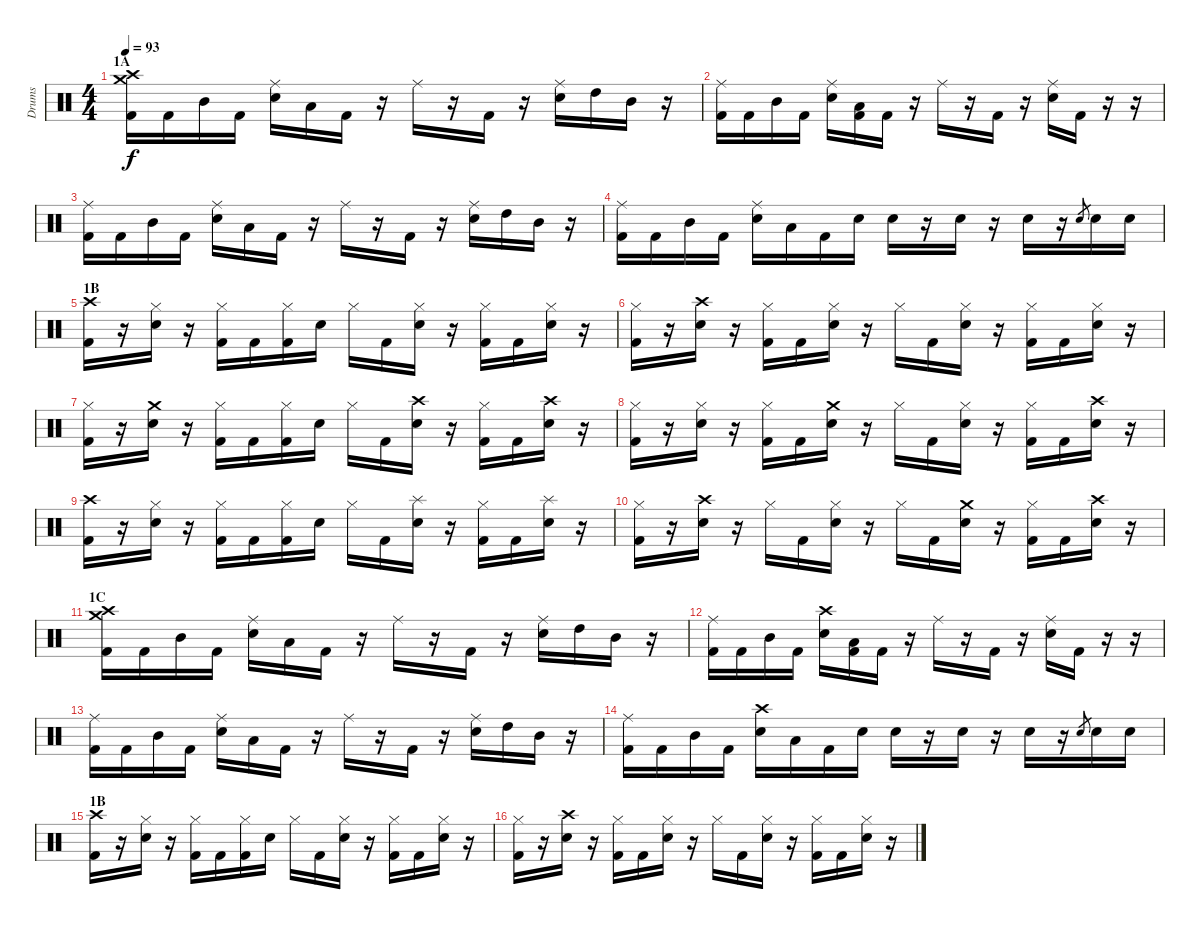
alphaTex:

\track ("Drums" "Drums") {instrument percussion}
\staff {score}
\articulation defaults
\ts (4 4)
\section ("" "1A")
\tempo 93
\clef neutral
\ks c
("Crash high (hit)" "Crash medium (hit)" "Kick (hit) 2").16{dy f volume 16} "Kick (hit) 2".16 "Mid Tom (hit)".16 "Kick (hit) 2".16 ("Ride (middle)" "Electric Snare (hit)").16 "Low Floor Tom (hit)".16 "Kick (hit) 2".16 r.16 "Ride (middle)".16 r.16 "Kick (hit) 2".16 r.16 ("Ride (middle)" "Electric Snare (hit)").16 "High Tom (hit)".16 "Mid Tom (hit)".16 r.16 |
("Ride (middle)" "Kick (hit) 2").16 "Kick (hit) 2".16 "Mid Tom (hit)".16 "Kick (hit) 2".16 ("Ride (middle)" "Electric Snare (hit)").16 ("Low Floor Tom (hit)" "Kick (hit) 2").16 "Kick (hit) 2".16 r.16 "Ride (middle)".16 r.16 "Kick (hit) 2".16 r.16 ("Ride (middle)" "Electric Snare (hit)").16 "Kick (hit) 2".16 r.16 r.16 |
("Ride (middle)" "Kick (hit) 2").16 "Kick (hit) 2".16 "Mid Tom (hit)".16 "Kick (hit) 2".16 ("Ride (middle)" "Electric Snare (hit)").16 "Low Floor Tom (hit)".16 "Kick (hit) 2".16 r.16 "Ride (middle)".16 r.16 "Kick (hit) 2".16 r.16 ("Ride (middle)" "Electric Snare (hit)").16 "High Tom (hit)".16 "Mid Tom (hit)".16 r.16 |
("Ride (middle)" "Kick (hit) 2").16 "Kick (hit) 2".16 "Mid Tom (hit)".16 "Kick (hit) 2".16 ("Ride (middle)" "Electric Snare (hit)").16 "Low Floor Tom (hit)".16 "Kick (hit) 2".16 "Electric Snare (hit)".16 "Electric Snare (hit)".16 r.16 "Electric Snare (hit)".16 r.16 "Electric Snare (hit)".16 r.16 "Electric Snare (hit)".8{gr} "Electric Snare (hit)".16 "Electric Snare (hit)".16 |
\section ("" "1B")
("Crash high (hit)" "Kick (hit) 2").16 r.16 ("Hi-Hat (closed)" "Electric Snare (hit)").16 r.16 ("Hi-Hat (closed)" "Kick (hit) 2").16 "Kick (hit) 2".16 ("Hi-Hat (closed)" "Kick (hit) 2").16 "Electric Snare (hit)".16 "Hi-Hat (closed)".16 "Kick (hit) 2".16 ("Hi-Hat (closed)" "Electric Snare (hit)").16 r.16 ("Hi-Hat (closed)" "Kick (hit) 2").16 "Kick (hit) 2".16 ("Hi-Hat (closed)" "Electric Snare (hit)").16 r.16 |
("Hi-Hat (closed)" "Kick (hit) 2").16 r.16 ("Crash high (hit)" "Electric Snare (hit)").16 r.16 ("Hi-Hat (closed)" "Kick (hit) 2").16 "Kick (hit) 2".16 ("Hi-Hat (closed)" "Electric Snare (hit)").16 r.16 "Hi-Hat (closed)".16 "Kick (hit) 2".16 ("Hi-Hat (closed)" "Electric Snare (hit)").16 r.16 ("Hi-Hat (closed)" "Kick (hit) 2").16 "Kick (hit) 2".16 ("Hi-Hat (closed)" "Electric Snare (hit)").16 r.16 |
("Hi-Hat (closed)" "Kick (hit) 2").16 r.16 ("Crash medium (hit)" "Electric Snare (hit)").16 r.16 ("Hi-Hat (closed)" "Kick (hit) 2").16 "Kick (hit) 2".16 ("Hi-Hat (closed)" "Kick (hit) 2").16 "Electric Snare (hit)".16 "Hi-Hat (closed)".16 "Kick (hit) 2".16 ("Crash high (hit)" "Electric Snare (hit)").16 r.16 ("Hi-Hat (closed)" "Kick (hit) 2").16 "Kick (hit) 2".16 ("Crash high (hit)" "Electric Snare (hit)").16 r.16 |
("Hi-Hat (closed)" "Kick (hit) 2").16 r.16 ("Hi-Hat (closed)" "Electric Snare (hit)").16 r.16 ("Hi-Hat (closed)" "Kick (hit) 2").16 "Kick (hit) 2".16 ("Crash medium (hit)" "Electric Snare (hit)").16 r.16 "Hi-Hat (closed)".16 "Kick (hit) 2".16 ("Hi-Hat (closed)" "Electric Snare (hit)").16 r.16 ("Hi-Hat (closed)" "Kick (hit) 2").16 "Kick (hit) 2".16 ("Crash high (hit)" "Electric Snare (hit)").16 r.16 |
("Crash high (hit)" "Kick (hit) 2").16 r.16 ("Hi-Hat (closed)" "Electric Snare (hit)").16 r.16 ("Hi-Hat (closed)" "Kick (hit) 2").16 "Kick (hit) 2".16 ("Hi-Hat (closed)" "Kick (hit) 2").16 "Electric Snare (hit)".16 "Hi-Hat (closed)".16 "Kick (hit) 2".16 ("Splash (hit)" "Electric Snare (hit)").16 r.16 ("Hi-Hat (closed)" "Kick (hit) 2").16 "Kick (hit) 2".16 ("Splash (hit)" "Electric Snare (hit)").16 r.16 |
("Hi-Hat (closed)" "Kick (hit) 2").16 r.16 ("Crash high (hit)" "Electric Snare (hit)").16 r.16 "Hi-Hat (closed)".16 "Kick (hit) 2".16 ("Hi-Hat (closed)" "Electric Snare (hit)").16 r.16 "Hi-Hat (closed)".16 "Kick (hit) 2".16 ("Crash medium (hit)" "Electric Snare (hit)").16 r.16 ("Hi-Hat (closed)" "Kick (hit) 2").16 "Kick (hit) 2".16 ("Crash high (hit)" "Electric Snare (hit)").16 r.16 |
\section ("" "1C")
("Crash high (hit)" "Crash medium (hit)" "Kick (hit) 2").16 "Kick (hit) 2".16 "Mid Tom (hit)".16 "Kick (hit) 2".16 ("Ride (middle)" "Electric Snare (hit)").16 "Low Floor Tom (hit)".16 "Kick (hit) 2".16 r.16 "Ride (middle)".16 r.16 "Kick (hit) 2".16 r.16 ("Ride (middle)" "Electric Snare (hit)").16 "High Tom (hit)".16 "Mid Tom (hit)".16 r.16 |
("Ride (middle)" "Kick (hit) 2").16 "Kick (hit) 2".16 "Mid Tom (hit)".16 "Kick (hit) 2".16 ("Crash high (hit)" "Electric Snare (hit)").16 ("Low Floor Tom (hit)" "Kick (hit) 2").16 "Kick (hit) 2".16 r.16 "Ride (middle)".16 r.16 "Kick (hit) 2".16 r.16 ("Ride (middle)" "Electric Snare (hit)").16 "Kick (hit) 2".16 r.16 r.16 |
("Ride (middle)" "Kick (hit) 2").16 "Kick (hit) 2".16 "Mid Tom (hit)".16 "Kick (hit) 2".16 ("Ride (middle)" "Electric Snare (hit)").16 "Low Floor Tom (hit)".16 "Kick (hit) 2".16 r.16 "Ride (middle)".16 r.16 "Kick (hit) 2".16 r.16 ("Ride (middle)" "Electric Snare (hit)").16 "High Tom (hit)".16 "Mid Tom (hit)".16 r.16 |
("Ride (middle)" "Kick (hit) 2").16 "Kick (hit) 2".16 "Mid Tom (hit)".16 "Kick (hit) 2".16 ("Crash high (hit)" "Electric Snare (hit)").16 "Low Floor Tom (hit)".16 "Kick (hit) 2".16 "Electric Snare (hit)".16 "Electric Snare (hit)".16 r.16 "Electric Snare (hit)".16 r.16 "Electric Snare (hit)".16 r.16 "Electric Snare (hit)".8{gr} "Electric Snare (hit)".16 "Electric Snare (hit)".16 |
\section ("" "1B")
("Crash high (hit)" "Kick (hit) 2").16 r.16 ("Hi-Hat (closed)" "Electric Snare (hit)").16 r.16 ("Hi-Hat (closed)" "Kick (hit) 2").16 "Kick (hit) 2".16 ("Hi-Hat (closed)" "Kick (hit) 2").16 "Electric Snare (hit)".16 "Hi-Hat (closed)".16 "Kick (hit) 2".16 ("Hi-Hat (closed)" "Electric Snare (hit)").16 r.16 ("Hi-Hat (closed)" "Kick (hit) 2").16 "Kick (hit) 2".16 ("Hi-Hat (closed)" "Electric Snare (hit)").16 r.16 |
("Hi-Hat (closed)" "Kick (hit) 2").16 r.16 ("Crash high (hit)" "Electric Snare (hit)").16 r.16 ("Hi-Hat (closed)" "Kick (hit) 2").16 "Kick (hit) 2".16 ("Hi-Hat (closed)" "Electric Snare (hit)").16 r.16 "Hi-Hat (closed)".16 "Kick (hit) 2".16 ("Hi-Hat (closed)" "Electric Snare (hit)").16 r.16 ("Hi-Hat (closed)" "Kick (hit) 2").16 "Kick (hit) 2".16 ("Hi-Hat (closed)" "Electric Snare (hit)").16 r.16
